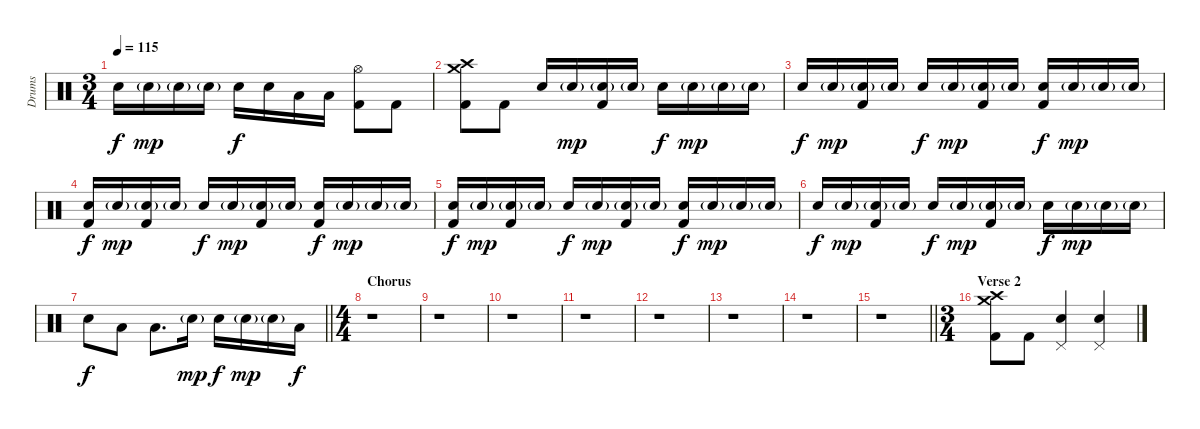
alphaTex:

\track ("Drums " "Drums ") {instrument percussion}
\staff {score}
\articulation defaults
\ts (3 4)
\tempo 115
\clef neutral
\ks c "Electric Snare (hit)".16{dy f} "Electric Snare (hit)"{g}.16{dy mp} "Electric Snare (hit)"{g}.16 "Electric Snare (hit)"{g}.16 "Electric Snare (hit)".16{dy f} "Electric Snare (hit)".16 "Low Tom (hit)".16 "Low Floor Tom (hit)".16
("Hi-Hat (open)" "Kick (hit) 2").8 "Kick (hit) 2".8 |
("Crash medium (hit)" "Crash high (hit)" "Kick (hit) 2").8 "Kick (hit) 2".8 "Electric Snare (hit)".16 "Electric Snare (hit)"{g}.16{dy mp} ("Electric Snare (hit)"{g} "Kick (hit) 2").16 "Electric Snare (hit)"{g}.16 "Electric Snare (hit)".16{dy f} "Electric Snare (hit)"{g}.16{dy mp} "Electric Snare (hit)"{g}.16 "Electric Snare (hit)"{g}.16 |
"Electric Snare (hit)".16{dy f} "Electric Snare (hit)"{g}.16{dy mp} ("Electric Snare (hit)"{g} "Kick (hit) 2").16 "Electric Snare (hit)"{g}.16 "Electric Snare (hit)".16{dy f} "Electric Snare (hit)"{g}.16{dy mp} ("Electric Snare (hit)"{g} "Kick (hit) 2").16 "Electric Snare (hit)"{g}.16 ("Electric Snare (hit)" "Kick (hit) 2").16{dy f} "Electric Snare (hit)"{g}.16{dy mp} "Electric Snare (hit)"{g}.16 "Electric Snare (hit)"{g}.16 |
("Electric Snare (hit)" "Kick (hit) 2").16{dy f} "Electric Snare (hit)"{g}.16{dy mp} ("Electric Snare (hit)"{g} "Kick (hit) 2").16 "Electric Snare (hit)"{g}.16 "Electric Snare (hit)".16{dy f} "Electric Snare (hit)"{g}.16{dy mp} ("Electric Snare (hit)"{g} "Kick (hit) 2").16 "Electric Snare (hit)"{g}.16 ("Electric Snare (hit)" "Kick (hit) 2").16{dy f} "Electric Snare (hit)"{g}.16{dy mp} "Electric Snare (hit)"{g}.16 "Electric Snare (hit)"{g}.16 |
("Electric Snare (hit)" "Kick (hit) 2").16{dy f} "Electric Snare (hit)"{g}.16{dy mp} ("Electric Snare (hit)"{g} "Kick (hit) 2").16 "Electric Snare (hit)"{g}.16 "Electric Snare (hit)".16{dy f} "Electric Snare (hit)"{g}.16{dy mp} ("Electric Snare (hit)"{g} "Kick (hit) 2").16 "Electric Snare (hit)"{g}.16 ("Electric Snare (hit)" "Kick (hit) 2").16{dy f} "Electric Snare (hit)"{g}.16{dy mp} "Electric Snare (hit)"{g}.16 "Electric Snare (hit)"{g}.16 |
"Electric Snare (hit)".16{dy f} "Electric Snare (hit)"{g}.16{dy mp} ("Electric Snare (hit)"{g} "Kick (hit) 2").16 "Electric Snare (hit)"{g}.16 "Electric Snare (hit)".16{dy f} "Electric Snare (hit)"{g}.16{dy mp} ("Electric Snare (hit)"{g} "Kick (hit) 2").16 "Electric Snare (hit)"{g}.16 "Electric Snare (hit)".16{dy f} "Electric Snare (hit)"{g}.16{dy mp} "Electric Snare (hit)"{g}.16 "Electric Snare (hit)"{g}.16 |
\barLineRight lightlight "Electric Snare (hit)".8{dy f} "Low Tom (hit)".8 "Low Floor Tom (hit)".8{d} "Electric Snare (hit)"{g}.16{dy mp} "Electric Snare (hit)".16{dy f} "Electric Snare (hit)"{g}.16{dy mp} "Electric Snare (hit)"{g}.16 "Low Floor Tom (hit)".16{dy f}
|
\ts (4 4)
\section ("" "Chorus")
r.1 |
r.1 |
r.1 |
r.1 |
r.1 |
r.1 |
r.1 |
\barLineRight lightlight
r.1 |
\ts (3 4)
\section ("" "Verse 2")
("Crash medium (hit)" "Crash high (hit)" "Kick (hit) 2").8 "Kick (hit) 2".8 ("Pedal Hi-Hat (hit)" "Electric Snare (hit)").4 ("Pedal Hi-Hat (hit)" "Electric Snare (hit)").4
